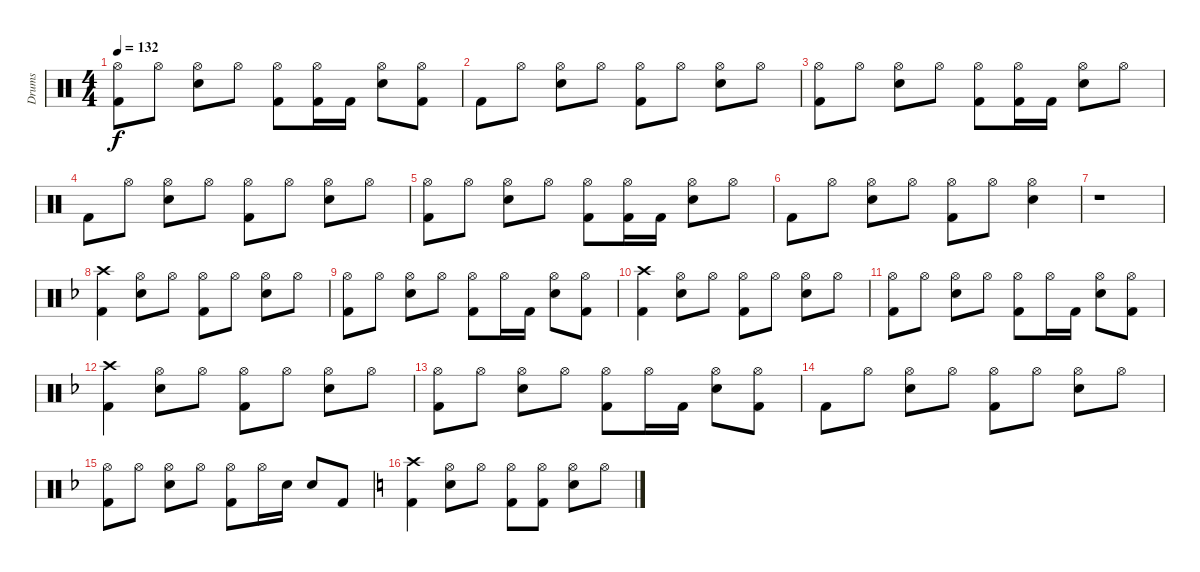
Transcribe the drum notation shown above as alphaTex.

\track ("Drums " "Drums ") {instrument percussion}
\staff {score}
\articulation defaults
\ts (4 4)
\tempo 132
\clef neutral
\ks aminor
("Kick (hit) 2" "Hi-Hat (open)").8{dy f} "Hi-Hat (open)".8 ("Snare (hit) 2" "Hi-Hat (open)").8 "Hi-Hat (open)".8 ("Kick (hit) 2" "Hi-Hat (open)").8 ("Kick (hit) 2" "Hi-Hat (open)").16 "Kick (hit) 2".16 ("Snare (hit) 2" "Hi-Hat (open)").8 ("Kick (hit) 2" "Hi-Hat (open)").8 |
"Kick (hit) 2".8 "Hi-Hat (open)".8 ("Snare (hit) 2" "Hi-Hat (open)").8 "Hi-Hat (open)".8 ("Kick (hit) 2" "Hi-Hat (open)").8 "Hi-Hat (open)".8 ("Snare (hit) 2" "Hi-Hat (open)").8 "Hi-Hat (open)".8 |
("Kick (hit) 2" "Hi-Hat (open)").8 "Hi-Hat (open)".8 ("Snare (hit) 2" "Hi-Hat (open)").8 "Hi-Hat (open)".8 ("Kick (hit) 2" "Hi-Hat (open)").8 ("Kick (hit) 2" "Hi-Hat (open)").16 "Kick (hit) 2".16 ("Snare (hit) 2" "Hi-Hat (open)").8 "Hi-Hat (open)".8 |
"Kick (hit) 2".8 "Hi-Hat (open)".8 ("Snare (hit) 2" "Hi-Hat (open)").8 "Hi-Hat (open)".8 ("Kick (hit) 2" "Hi-Hat (open)").8 "Hi-Hat (open)".8 ("Snare (hit) 2" "Hi-Hat (open)").8 "Hi-Hat (open)".8 |
("Kick (hit) 2" "Hi-Hat (open)").8 "Hi-Hat (open)".8 ("Snare (hit) 2" "Hi-Hat (open)").8 "Hi-Hat (open)".8 ("Kick (hit) 2" "Hi-Hat (open)").8 ("Kick (hit) 2" "Hi-Hat (open)").16 "Kick (hit) 2".16 ("Snare (hit) 2" "Hi-Hat (open)").8 "Hi-Hat (open)".8 |
"Kick (hit) 2".8 "Hi-Hat (open)".8 ("Snare (hit) 2" "Hi-Hat (open)").8 "Hi-Hat (open)".8 ("Kick (hit) 2" "Hi-Hat (open)").8 "Hi-Hat (open)".8 ("Snare (hit) 2" "Hi-Hat (open)").4 |
r.1 |
\ks dminor
("Kick (hit) 2" "Crash high (hit)").4 ("Snare (hit) 2" "Hi-Hat (open)").8 "Hi-Hat (open)".8 ("Kick (hit) 2" "Hi-Hat (open)").8 "Hi-Hat (open)".8 ("Snare (hit) 2" "Hi-Hat (open)").8 "Hi-Hat (open)".8 |
("Kick (hit) 2" "Hi-Hat (open)").8 "Hi-Hat (open)".8 ("Snare (hit) 2" "Hi-Hat (open)").8 "Hi-Hat (open)".8 ("Kick (hit) 2" "Hi-Hat (open)").8 "Hi-Hat (open)".16 "Kick (hit) 2".16 ("Snare (hit) 2" "Hi-Hat (open)").8 ("Kick (hit) 2" "Hi-Hat (open)").8 |
("Kick (hit) 2" "Crash high (hit)").4 ("Snare (hit) 2" "Hi-Hat (open)").8 "Hi-Hat (open)".8 ("Kick (hit) 2" "Hi-Hat (open)").8 "Hi-Hat (open)".8 ("Snare (hit) 2" "Hi-Hat (open)").8 "Hi-Hat (open)".8 |
("Kick (hit) 2" "Hi-Hat (open)").8 "Hi-Hat (open)".8 ("Snare (hit) 2" "Hi-Hat (open)").8 "Hi-Hat (open)".8 ("Kick (hit) 2" "Hi-Hat (open)").8 "Hi-Hat (open)".16 "Kick (hit) 2".16 ("Snare (hit) 2" "Hi-Hat (open)").8 ("Kick (hit) 2" "Hi-Hat (open)").8 |
("Kick (hit) 2" "Crash high (hit)").4 ("Snare (hit) 2" "Hi-Hat (open)").8 "Hi-Hat (open)".8 ("Kick (hit) 2" "Hi-Hat (open)").8 "Hi-Hat (open)".8 ("Snare (hit) 2" "Hi-Hat (open)").8 "Hi-Hat (open)".8 |
("Kick (hit) 2" "Hi-Hat (open)").8 "Hi-Hat (open)".8 ("Snare (hit) 2" "Hi-Hat (open)").8 "Hi-Hat (open)".8 ("Kick (hit) 2" "Hi-Hat (open)").8 "Hi-Hat (open)".16 "Kick (hit) 2".16 ("Snare (hit) 2" "Hi-Hat (open)").8 ("Kick (hit) 2" "Hi-Hat (open)").8 |
"Kick (hit) 2".8 "Hi-Hat (open)".8 ("Snare (hit) 2" "Hi-Hat (open)").8 "Hi-Hat (open)".8 ("Kick (hit) 2" "Hi-Hat (open)").8 "Hi-Hat (open)".8 ("Snare (hit) 2" "Hi-Hat (open)").8 "Hi-Hat (open)".8 |
("Kick (hit) 2" "Hi-Hat (open)").8 "Hi-Hat (open)".8 ("Snare (hit) 2" "Hi-Hat (open)").8 "Hi-Hat (open)".8 ("Kick (hit) 2" "Hi-Hat (open)").8 "Hi-Hat (open)".16 "Snare (hit) 2".16 "Snare (hit) 2".8 "Kick (hit) 2".8 |
\ks aminor
("Kick (hit) 2" "Crash high (hit)").4 ("Snare (hit) 2" "Hi-Hat (open)").8 "Hi-Hat (open)".8 ("Kick (hit) 2" "Hi-Hat (open)").8 ("Kick (hit) 2" "Hi-Hat (open)").8 ("Snare (hit) 2" "Hi-Hat (open)").8 "Hi-Hat (open)".8
